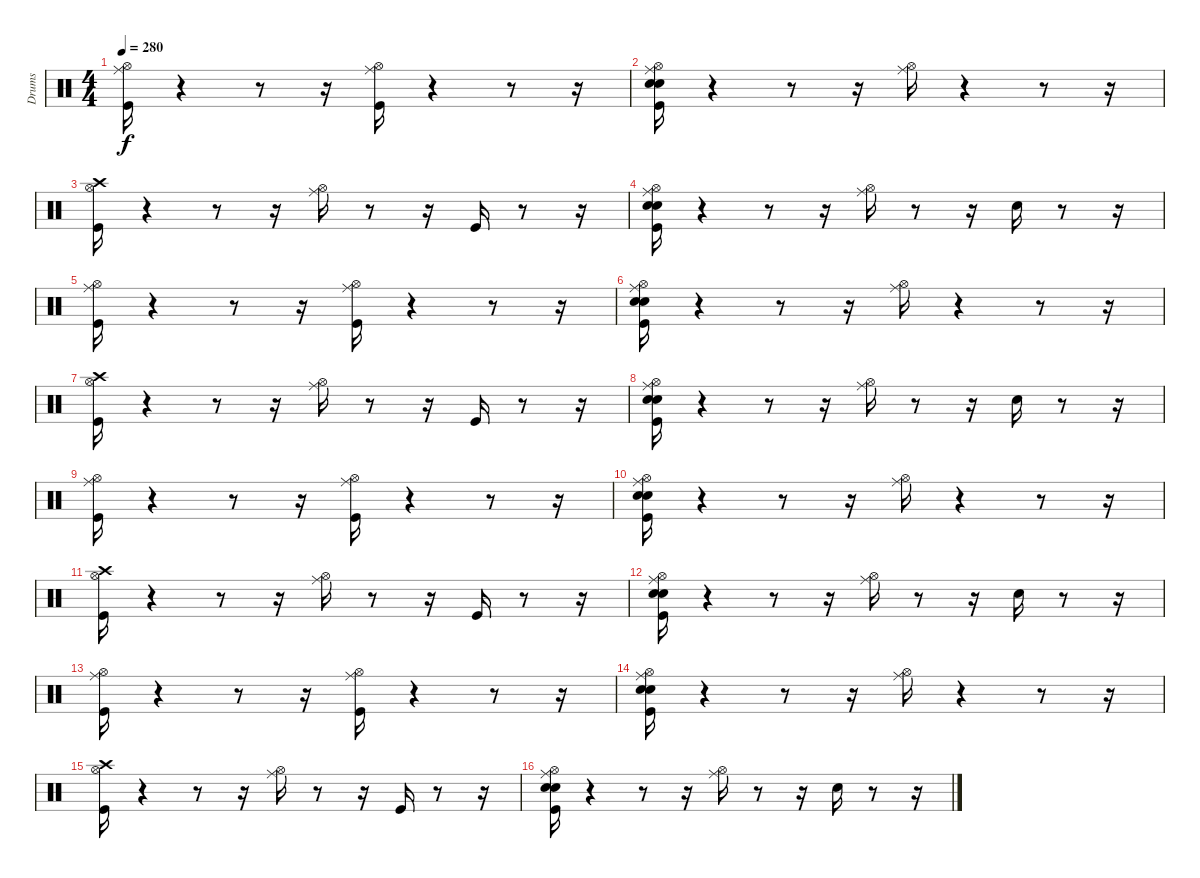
\track ("Drums" "Drums") {instrument percussion}
\staff {score}
\articulation defaults
\ts (4 4)
\tempo 280
\clef neutral
\ks c
("Ride (middle)" "Hi-Hat (open)" "Kick (hit)").16{dy f} r.4 r.8 r.16 ("Hi-Hat (open)" "Ride (middle)" "Kick (hit)").16 r.4 r.8 r.16 |
("Ride (middle)" "Hi-Hat (open)" "Kick (hit)" "Snare (hit) 2" "Electric Snare (hit)").16 r.4 r.8 r.16 ("Hi-Hat (open)" "Ride (middle)").16 r.4 r.8 r.16 |
("Crash high (hit)" "Hi-Hat (open)" "Kick (hit)").16 r.4 r.8 r.16 ("Hi-Hat (open)" "Ride (middle)").16 r.8 r.16 "Kick (hit)".16 r.8 r.16 |
("Hi-Hat (open)" "Kick (hit)" "Snare (hit) 2" "Electric Snare (hit)" "Ride (middle)").16 r.4 r.8 r.16 ("Hi-Hat (open)" "Ride (middle)").16 r.8 r.16 "Snare (hit) 2".16 r.8 r.16 |
("Ride (middle)" "Hi-Hat (open)" "Kick (hit)").16 r.4 r.8 r.16 ("Hi-Hat (open)" "Ride (middle)" "Kick (hit)").16 r.4 r.8 r.16 |
("Ride (middle)" "Hi-Hat (open)" "Kick (hit)" "Snare (hit) 2" "Electric Snare (hit)").16 r.4 r.8 r.16 ("Hi-Hat (open)" "Ride (middle)").16 r.4 r.8 r.16 |
("Kick (hit)" "Hi-Hat (open)" "Crash high (hit)").16 r.4 r.8 r.16 ("Hi-Hat (open)" "Ride (middle)").16 r.8 r.16 "Kick (hit)".16 r.8 r.16 |
("Hi-Hat (open)" "Kick (hit)" "Snare (hit) 2" "Electric Snare (hit)" "Ride (middle)").16 r.4 r.8 r.16 ("Hi-Hat (open)" "Ride (middle)").16 r.8 r.16 "Snare (hit) 2".16 r.8 r.16 |
("Ride (middle)" "Hi-Hat (open)" "Kick (hit)").16 r.4 r.8 r.16 ("Hi-Hat (open)" "Ride (middle)" "Kick (hit)").16 r.4 r.8 r.16 |
("Ride (middle)" "Hi-Hat (open)" "Kick (hit)" "Snare (hit) 2" "Electric Snare (hit)").16 r.4 r.8 r.16 ("Hi-Hat (open)" "Ride (middle)").16 r.4 r.8 r.16 |
("Crash high (hit)" "Hi-Hat (open)" "Kick (hit)").16 r.4 r.8 r.16 ("Hi-Hat (open)" "Ride (middle)").16 r.8 r.16 "Kick (hit)".16 r.8 r.16 |
("Hi-Hat (open)" "Kick (hit)" "Snare (hit) 2" "Electric Snare (hit)" "Ride (middle)").16 r.4 r.8 r.16 ("Hi-Hat (open)" "Ride (middle)").16 r.8 r.16 "Snare (hit) 2".16 r.8 r.16 |
("Ride (middle)" "Hi-Hat (open)" "Kick (hit)").16 r.4 r.8 r.16 ("Hi-Hat (open)" "Ride (middle)" "Kick (hit)").16 r.4 r.8 r.16 |
("Ride (middle)" "Hi-Hat (open)" "Kick (hit)" "Snare (hit) 2" "Electric Snare (hit)").16 r.4 r.8 r.16 ("Hi-Hat (open)" "Ride (middle)").16 r.4 r.8 r.16 |
("Kick (hit)" "Hi-Hat (open)" "Crash high (hit)").16 r.4 r.8 r.16 ("Hi-Hat (open)" "Ride (middle)").16 r.8 r.16 "Kick (hit)".16 r.8 r.16 |
("Hi-Hat (open)" "Kick (hit)" "Snare (hit) 2" "Electric Snare (hit)" "Ride (middle)").16 r.4 r.8 r.16 ("Hi-Hat (open)" "Ride (middle)").16 r.8 r.16 "Snare (hit) 2".16 r.8 r.16
